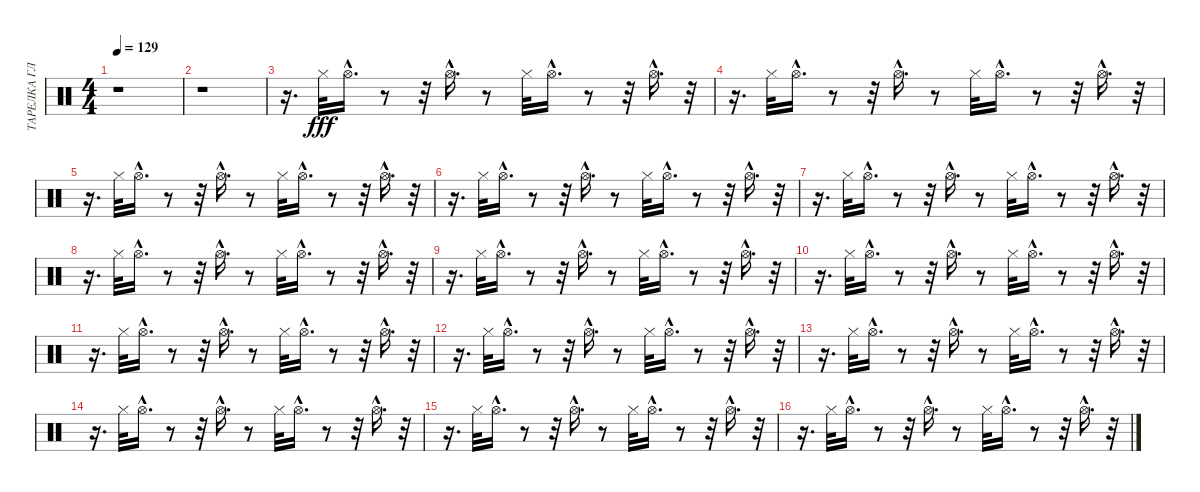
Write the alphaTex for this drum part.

\track ("ТАРЕЛКА ГЛУХАЯ" "ТАРЕЛКА ГЛ") {instrument percussion}
\staff {score}
\articulation defaults
\ts (4 4)
\tempo 129
\clef neutral
\ks c
r.1{dy fff} |
r.1 |
r.16{d} "Hi-Hat (closed)".32 "Hi-Hat (open)"{hac}.16{d} r.8 r.32 "Hi-Hat (open)"{hac}.16{d} r.8 "Hi-Hat (closed)".32 "Hi-Hat (open)"{hac}.16{d} r.8 r.32 "Hi-Hat (open)"{hac}.16{d} r.32 |
r.16{d} "Hi-Hat (closed)".32 "Hi-Hat (open)"{hac}.16{d} r.8 r.32 "Hi-Hat (open)"{hac}.16{d} r.8 "Hi-Hat (closed)".32 "Hi-Hat (open)"{hac}.16{d} r.8 r.32 "Hi-Hat (open)"{hac}.16{d} r.32 |
r.16{d} "Hi-Hat (closed)".32 "Hi-Hat (open)"{hac}.16{d} r.8 r.32 "Hi-Hat (open)"{hac}.16{d} r.8 "Hi-Hat (closed)".32 "Hi-Hat (open)"{hac}.16{d} r.8 r.32 "Hi-Hat (open)"{hac}.16{d} r.32 |
r.16{d} "Hi-Hat (closed)".32 "Hi-Hat (open)"{hac}.16{d} r.8 r.32 "Hi-Hat (open)"{hac}.16{d} r.8 "Hi-Hat (closed)".32 "Hi-Hat (open)"{hac}.16{d} r.8 r.32 "Hi-Hat (open)"{hac}.16{d} r.32 |
r.16{d} "Hi-Hat (closed)".32 "Hi-Hat (open)"{hac}.16{d} r.8 r.32 "Hi-Hat (open)"{hac}.16{d} r.8 "Hi-Hat (closed)".32 "Hi-Hat (open)"{hac}.16{d} r.8 r.32 "Hi-Hat (open)"{hac}.16{d} r.32 |
r.16{d} "Hi-Hat (closed)".32 "Hi-Hat (open)"{hac}.16{d} r.8 r.32 "Hi-Hat (open)"{hac}.16{d} r.8 "Hi-Hat (closed)".32 "Hi-Hat (open)"{hac}.16{d} r.8 r.32 "Hi-Hat (open)"{hac}.16{d} r.32 |
r.16{d} "Hi-Hat (closed)".32 "Hi-Hat (open)"{hac}.16{d} r.8 r.32 "Hi-Hat (open)"{hac}.16{d} r.8 "Hi-Hat (closed)".32 "Hi-Hat (open)"{hac}.16{d} r.8 r.32 "Hi-Hat (open)"{hac}.16{d} r.32 |
r.16{d} "Hi-Hat (closed)".32 "Hi-Hat (open)"{hac}.16{d} r.8 r.32 "Hi-Hat (open)"{hac}.16{d} r.8 "Hi-Hat (closed)".32 "Hi-Hat (open)"{hac}.16{d} r.8 r.32 "Hi-Hat (open)"{hac}.16{d} r.32 |
r.16{d} "Hi-Hat (closed)".32 "Hi-Hat (open)"{hac}.16{d} r.8 r.32 "Hi-Hat (open)"{hac}.16{d} r.8 "Hi-Hat (closed)".32 "Hi-Hat (open)"{hac}.16{d} r.8 r.32 "Hi-Hat (open)"{hac}.16{d} r.32 |
r.16{d} "Hi-Hat (closed)".32 "Hi-Hat (open)"{hac}.16{d} r.8 r.32 "Hi-Hat (open)"{hac}.16{d} r.8 "Hi-Hat (closed)".32 "Hi-Hat (open)"{hac}.16{d} r.8 r.32 "Hi-Hat (open)"{hac}.16{d} r.32 |
r.16{d} "Hi-Hat (closed)".32 "Hi-Hat (open)"{hac}.16{d} r.8 r.32 "Hi-Hat (open)"{hac}.16{d} r.8 "Hi-Hat (closed)".32 "Hi-Hat (open)"{hac}.16{d} r.8 r.32 "Hi-Hat (open)"{hac}.16{d} r.32 |
r.16{d} "Hi-Hat (closed)".32 "Hi-Hat (open)"{hac}.16{d} r.8 r.32 "Hi-Hat (open)"{hac}.16{d} r.8 "Hi-Hat (closed)".32 "Hi-Hat (open)"{hac}.16{d} r.8 r.32 "Hi-Hat (open)"{hac}.16{d} r.32 |
r.16{d} "Hi-Hat (closed)".32 "Hi-Hat (open)"{hac}.16{d} r.8 r.32 "Hi-Hat (open)"{hac}.16{d} r.8 "Hi-Hat (closed)".32 "Hi-Hat (open)"{hac}.16{d} r.8 r.32 "Hi-Hat (open)"{hac}.16{d} r.32 |
r.16{d} "Hi-Hat (closed)".32 "Hi-Hat (open)"{hac}.16{d} r.8 r.32 "Hi-Hat (open)"{hac}.16{d} r.8 "Hi-Hat (closed)".32 "Hi-Hat (open)"{hac}.16{d} r.8 r.32 "Hi-Hat (open)"{hac}.16{d} r.32
